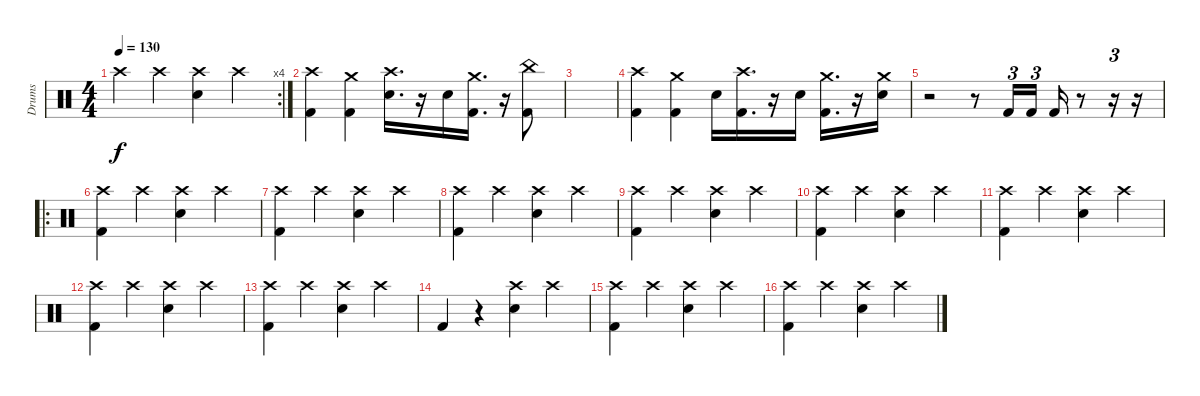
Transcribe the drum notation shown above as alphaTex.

\track ("Drums" "Drums") {instrument percussion}
\staff {score}
\articulation defaults
\rc 4
\ts (4 4)
\tempo 130
\clef neutral
\ks c "Crash high (hit)".4{dy f} "Crash high (hit)".4
("Crash high (hit)" "Electric Snare (hit)").4 "Crash high (hit)".4 |
("Crash high (hit)" "Kick (hit) 2").4 ("Crash medium (hit)" "Kick (hit) 2").4 ("Electric Snare (hit)" "Crash high (hit)").16{d} r.16 "Electric Snare (hit)".16 ("Crash medium (hit)" "Kick (hit) 2").16{d} r.16 ("China (hit)" "Kick (hit) 2").8 |
|
("Crash high (hit)" "Kick (hit) 2").4 ("Crash medium (hit)" "Kick (hit) 2").4 "Electric Snare (hit)".16 ("Crash high (hit)" "Kick (hit) 2").16{d} r.16 "Electric Snare (hit)".16 ("Crash medium (hit)" "Kick (hit) 2").16{d} r.16 ("Electric Snare (hit)" "Crash medium (hit)").16 |
r.2 r.8 "Kick (hit) 2".16{tu (3 2)} "Kick (hit) 2".16{tu (3 2) beam splitsecondary} "Kick (hit) 2".16 r.8 r.16{tu (3 2)} r.16 |
\ro
("Crash high (hit)" "Kick (hit) 2").4 "Crash high (hit)".4 ("Crash high (hit)" "Electric Snare (hit)").4 "Crash high (hit)".4 |
("Crash high (hit)" "Kick (hit) 2").4 "Crash high (hit)".4 ("Crash high (hit)" "Electric Snare (hit)").4 "Crash high (hit)".4 |
("Crash high (hit)" "Kick (hit) 2").4 "Crash high (hit)".4 ("Crash high (hit)" "Electric Snare (hit)").4 "Crash high (hit)".4 |
("Crash high (hit)" "Kick (hit) 2").4 "Crash high (hit)".4 ("Crash high (hit)" "Electric Snare (hit)").4 "Crash high (hit)".4 |
("Crash high (hit)" "Kick (hit) 2").4 "Crash high (hit)".4 ("Crash high (hit)" "Electric Snare (hit)").4 "Crash high (hit)".4 |
("Crash high (hit)" "Kick (hit) 2").4 "Crash high (hit)".4 ("Crash high (hit)" "Electric Snare (hit)").4 "Crash high (hit)".4 |
("Crash high (hit)" "Kick (hit) 2").4 "Crash high (hit)".4 ("Crash high (hit)" "Electric Snare (hit)").4 "Crash high (hit)".4 |
("Crash high (hit)" "Kick (hit) 2").4 "Crash high (hit)".4 ("Crash high (hit)" "Electric Snare (hit)").4 "Crash high (hit)".4 |
"Kick (hit) 2".4 r.4 ("Crash high (hit)" "Electric Snare (hit)").4 "Crash high (hit)".4 |
("Crash high (hit)" "Kick (hit) 2").4 "Crash high (hit)".4 ("Crash high (hit)" "Electric Snare (hit)").4 "Crash high (hit)".4 |
("Crash high (hit)" "Kick (hit) 2").4 "Crash high (hit)".4 ("Crash high (hit)" "Electric Snare (hit)").4 "Crash high (hit)".4
